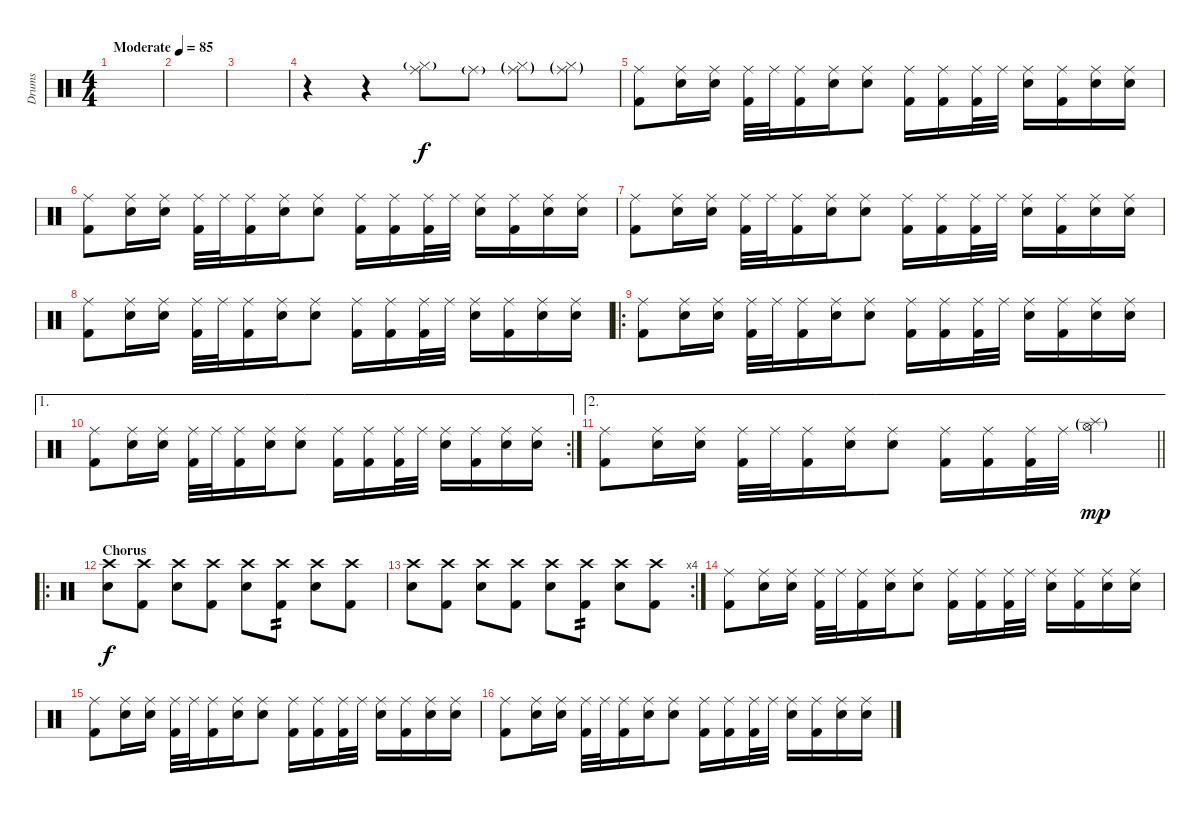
\track ("Drums" "Drums") {instrument percussion}
\staff {score}
\articulation defaults
\ts (4 4)
\tempo (85 "Moderate")
\clef neutral
\ks c
|
|
|
r.4 r.4 ("Hi-Hat (closed)"{g} "Ride (middle)").8 "Ride (middle)"{g}.8 ("Hi-Hat (closed)"{g} "Ride (middle)"{g}).8 ("Hi-Hat (closed)"{g} "Ride (middle)"{g}).8 |
("Ride (middle)" "Kick (hit) 2").8{dy f} ("Ride (middle)" "Electric Snare (hit)").16 ("Ride (middle)" "Electric Snare (hit)").16 ("Ride (middle)" "Kick (hit) 2").32 "Ride (middle)".32 ("Ride (middle)" "Kick (hit) 2").16 ("Ride (middle)" "Electric Snare (hit)").16 ("Ride (middle)" "Electric Snare (hit)").8 ("Ride (middle)" "Kick (hit) 2").16 ("Ride (middle)" "Kick (hit) 2").16 ("Ride (middle)" "Kick (hit) 2").32 "Ride (middle)".32 ("Ride (middle)" "Electric Snare (hit)").16 ("Ride (middle)" "Kick (hit) 2").16 ("Ride (middle)" "Electric Snare (hit)").16 ("Ride (middle)" "Electric Snare (hit)").16 |
("Ride (middle)" "Kick (hit) 2").8 ("Ride (middle)" "Electric Snare (hit)").16 ("Ride (middle)" "Electric Snare (hit)").16 ("Ride (middle)" "Kick (hit) 2").32 "Ride (middle)".32 ("Ride (middle)" "Kick (hit) 2").16 ("Ride (middle)" "Electric Snare (hit)").16 ("Ride (middle)" "Electric Snare (hit)").8 ("Ride (middle)" "Kick (hit) 2").16 ("Ride (middle)" "Kick (hit) 2").16 ("Ride (middle)" "Kick (hit) 2").32 "Ride (middle)".32 ("Ride (middle)" "Electric Snare (hit)").16 ("Ride (middle)" "Kick (hit) 2").16 ("Ride (middle)" "Electric Snare (hit)").16 ("Ride (middle)" "Electric Snare (hit)").16 |
("Ride (middle)" "Kick (hit) 2").8 ("Ride (middle)" "Electric Snare (hit)").16 ("Ride (middle)" "Electric Snare (hit)").16 ("Ride (middle)" "Kick (hit) 2").32 "Ride (middle)".32 ("Ride (middle)" "Kick (hit) 2").16 ("Ride (middle)" "Electric Snare (hit)").16 ("Ride (middle)" "Electric Snare (hit)").8 ("Ride (middle)" "Kick (hit) 2").16 ("Ride (middle)" "Kick (hit) 2").16 ("Ride (middle)" "Kick (hit) 2").32 "Ride (middle)".32 ("Ride (middle)" "Electric Snare (hit)").16 ("Ride (middle)" "Kick (hit) 2").16 ("Ride (middle)" "Electric Snare (hit)").16 ("Ride (middle)" "Electric Snare (hit)").16 |
("Ride (middle)" "Kick (hit) 2").8 ("Ride (middle)" "Electric Snare (hit)").16 ("Ride (middle)" "Electric Snare (hit)").16 ("Ride (middle)" "Kick (hit) 2").32 "Ride (middle)".32 ("Ride (middle)" "Kick (hit) 2").16 ("Ride (middle)" "Electric Snare (hit)").16 ("Ride (middle)" "Electric Snare (hit)").8 ("Ride (middle)" "Kick (hit) 2").16 ("Ride (middle)" "Kick (hit) 2").16 ("Ride (middle)" "Kick (hit) 2").32 "Ride (middle)".32 ("Ride (middle)" "Electric Snare (hit)").16 ("Ride (middle)" "Kick (hit) 2").16 ("Ride (middle)" "Electric Snare (hit)").16 ("Ride (middle)" "Electric Snare (hit)").16 |
\ro
("Ride (middle)" "Kick (hit) 2").8 ("Ride (middle)" "Electric Snare (hit)").16 ("Ride (middle)" "Electric Snare (hit)").16 ("Ride (middle)" "Kick (hit) 2").32 "Ride (middle)".32 ("Ride (middle)" "Kick (hit) 2").16 ("Ride (middle)" "Electric Snare (hit)").16 ("Ride (middle)" "Electric Snare (hit)").8 ("Ride (middle)" "Kick (hit) 2").16 ("Ride (middle)" "Kick (hit) 2").16 ("Ride (middle)" "Kick (hit) 2").32 "Ride (middle)".32 ("Ride (middle)" "Electric Snare (hit)").16 ("Ride (middle)" "Kick (hit) 2").16 ("Ride (middle)" "Electric Snare (hit)").16 ("Ride (middle)" "Electric Snare (hit)").16 |
\ae 1
\rc 2
("Ride (middle)" "Kick (hit) 2").8 ("Ride (middle)" "Electric Snare (hit)").16 ("Ride (middle)" "Electric Snare (hit)").16 ("Ride (middle)" "Kick (hit) 2").32 "Ride (middle)".32 ("Ride (middle)" "Kick (hit) 2").16 ("Ride (middle)" "Electric Snare (hit)").16 ("Ride (middle)" "Electric Snare (hit)").8 ("Ride (middle)" "Kick (hit) 2").16 ("Ride (middle)" "Kick (hit) 2").16 ("Ride (middle)" "Kick (hit) 2").32 "Ride (middle)".32 ("Ride (middle)" "Electric Snare (hit)").16 ("Ride (middle)" "Kick (hit) 2").16 ("Ride (middle)" "Electric Snare (hit)").16 ("Ride (middle)" "Electric Snare (hit)").16 |
\ae 2
\barLineRight lightlight
("Ride (middle)" "Kick (hit) 2").8 ("Ride (middle)" "Electric Snare (hit)").16 ("Ride (middle)" "Electric Snare (hit)").16 ("Ride (middle)" "Kick (hit) 2").32 "Ride (middle)".32 ("Ride (middle)" "Kick (hit) 2").16 ("Ride (middle)" "Electric Snare (hit)").16 ("Ride (middle)" "Electric Snare (hit)").8 ("Ride (middle)" "Kick (hit) 2").16 ("Ride (middle)" "Kick (hit) 2").16 ("Ride (middle)" "Kick (hit) 2").32 "Ride (middle)".32 ("Hi-Hat (open)"{g} "Splash (hit)"{g}).4{dy mp} |
\ro
\section ("" "Chorus")
("Crash high (hit)" "Electric Snare (hit)").8{dy f} ("Crash high (hit)" "Kick (hit) 2").8 ("Crash high (hit)" "Electric Snare (hit)").8 ("Crash high (hit)" "Kick (hit) 2").8 ("Crash high (hit)" "Electric Snare (hit)").8 ("Crash high (hit)" "Kick (hit) 2").8{tp 2} ("Crash high (hit)" "Electric Snare (hit)").8 ("Crash high (hit)" "Kick (hit) 2").8 |
\rc 4
("Crash high (hit)" "Electric Snare (hit)").8 ("Crash high (hit)" "Kick (hit) 2").8 ("Crash high (hit)" "Electric Snare (hit)").8 ("Crash high (hit)" "Kick (hit) 2").8 ("Crash high (hit)" "Electric Snare (hit)").8 ("Crash high (hit)" "Kick (hit) 2").8{tp 2} ("Crash high (hit)" "Electric Snare (hit)").8 ("Crash high (hit)" "Kick (hit) 2").8 |
("Ride (middle)" "Kick (hit) 2").8 ("Ride (middle)" "Electric Snare (hit)").16 ("Ride (middle)" "Electric Snare (hit)").16 ("Ride (middle)" "Kick (hit) 2").32 "Ride (middle)".32 ("Ride (middle)" "Kick (hit) 2").16 ("Ride (middle)" "Electric Snare (hit)").16 ("Ride (middle)" "Electric Snare (hit)").8 ("Ride (middle)" "Kick (hit) 2").16 ("Ride (middle)" "Kick (hit) 2").16 ("Ride (middle)" "Kick (hit) 2").32 "Ride (middle)".32 ("Ride (middle)" "Electric Snare (hit)").16 ("Ride (middle)" "Kick (hit) 2").16 ("Ride (middle)" "Electric Snare (hit)").16 ("Ride (middle)" "Electric Snare (hit)").16 |
("Ride (middle)" "Kick (hit) 2").8 ("Ride (middle)" "Electric Snare (hit)").16 ("Ride (middle)" "Electric Snare (hit)").16 ("Ride (middle)" "Kick (hit) 2").32 "Ride (middle)".32 ("Ride (middle)" "Kick (hit) 2").16 ("Ride (middle)" "Electric Snare (hit)").16 ("Ride (middle)" "Electric Snare (hit)").8 ("Ride (middle)" "Kick (hit) 2").16 ("Ride (middle)" "Kick (hit) 2").16 ("Ride (middle)" "Kick (hit) 2").32 "Ride (middle)".32 ("Ride (middle)" "Electric Snare (hit)").16 ("Ride (middle)" "Kick (hit) 2").16 ("Ride (middle)" "Electric Snare (hit)").16 ("Ride (middle)" "Electric Snare (hit)").16 |
("Ride (middle)" "Kick (hit) 2").8 ("Ride (middle)" "Electric Snare (hit)").16 ("Ride (middle)" "Electric Snare (hit)").16 ("Ride (middle)" "Kick (hit) 2").32 "Ride (middle)".32 ("Ride (middle)" "Kick (hit) 2").16 ("Ride (middle)" "Electric Snare (hit)").16 ("Ride (middle)" "Electric Snare (hit)").8 ("Ride (middle)" "Kick (hit) 2").16 ("Ride (middle)" "Kick (hit) 2").16 ("Ride (middle)" "Kick (hit) 2").32 "Ride (middle)".32 ("Ride (middle)" "Electric Snare (hit)").16 ("Ride (middle)" "Kick (hit) 2").16 ("Ride (middle)" "Electric Snare (hit)").16 ("Ride (middle)" "Electric Snare (hit)").16
